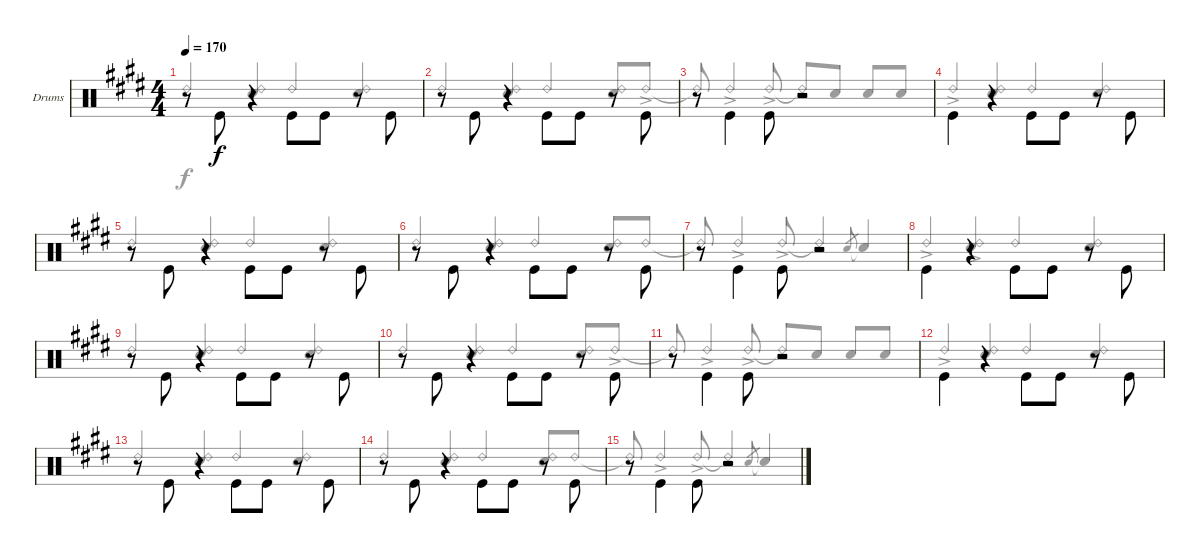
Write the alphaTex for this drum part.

\bracketExtendMode groupsimilarinstruments
\firstSystemTrackNameOrientation horizontal
\otherSystemsTrackNameOrientation horizontal
\track ("Drums" "Drums") {instrument percussion}
\staff {score}
\articulation defaults
\voice
\ts (4 4)
\tempo 170
\clef neutral
\scale
1.06557
\ks e
r.8{dy f} "Kick (hit)".8{beam invert} r.4 "Kick (hit)".8{beam invert} "Kick (hit)".8 r.8 "Kick (hit)".8{beam invert} |
\scale
0.934426 r.8 "Kick (hit)".8{beam invert} r.4 "Kick (hit)".8{beam invert} "Kick (hit)".8 r.8 "Kick (hit)".8{beam invert} |
\scale
1.09584 r.8 "Kick (hit)".4{beam invert} "Kick (hit)".8{beam invert} r.2 |
\scale
0.904161 "Kick (hit)".4{beam invert} r.4{beam invert} "Kick (hit)".8{beam invert} "Kick (hit)".8 r.8 "Kick (hit)".8{beam invert} |
\scale
1.06557 r.8 "Kick (hit)".8{beam invert} r.4 "Kick (hit)".8{beam invert} "Kick (hit)".8 r.8 "Kick (hit)".8{beam invert} |
\scale
0.934426 r.8 "Kick (hit)".8{beam invert} r.4 "Kick (hit)".8{beam invert} "Kick (hit)".8 r.8 "Kick (hit)".8{beam invert} |
\scale
1.06557 r.8 "Kick (hit)".4{beam invert} "Kick (hit)".8{beam invert} r.2 |
\scale
0.934426 "Kick (hit)".4{beam invert} r.4{beam invert} "Kick (hit)".8{beam invert} "Kick (hit)".8 r.8 "Kick (hit)".8{beam invert} |
\scale
1.06557 r.8 "Kick (hit)".8{beam invert} r.4 "Kick (hit)".8{beam invert} "Kick (hit)".8 r.8 "Kick (hit)".8{beam invert} |
\scale
0.934426 r.8 "Kick (hit)".8{beam invert} r.4 "Kick (hit)".8{beam invert} "Kick (hit)".8 r.8 "Kick (hit)".8{beam invert} |
\scale
1.06557 r.8 "Kick (hit)".4{beam invert} "Kick (hit)".8{beam invert} r.2 |
\scale
0.934426 "Kick (hit)".4{beam invert} r.4{beam invert} "Kick (hit)".8{beam invert} "Kick (hit)".8 r.8 "Kick (hit)".8{beam invert} |
\scale
1.06557 r.8 "Kick (hit)".8{beam invert} r.4 "Kick (hit)".8{beam invert} "Kick (hit)".8 r.8 "Kick (hit)".8{beam invert} |
\scale
0.934426 r.8 "Kick (hit)".8{beam invert} r.4 "Kick (hit)".8{beam invert} "Kick (hit)".8 r.8 "Kick (hit)".8{beam invert} |
\scale
1.06557 r.8 "Kick (hit)".4{beam invert} "Kick (hit)".8{beam invert} r.2
\voice
\clef neutral
\ottava regular
\simile none
\scale
1.06557
\ks e "Ride (bell) 2".4{dy f beam invert}
("Ride (bell) 2" "Snare (hit) 2").4{beam invert} "Ride (bell) 2".4{beam invert} ("Ride (bell) 2" "Snare (hit) 2").4{beam invert} |
\scale
0.934426 "Ride (bell) 2".4{beam invert} ("Ride (bell) 2" "Snare (hit) 2").4{beam invert} "Ride (bell) 2".4{beam invert} ("Ride (bell) 2" "Snare (hit) 2").8{beam invert} "Ride (bell) 2"{ac}.8 |
\scale
1.09584 "Ride (bell) 2"{t}.8{beam invert} "Ride (bell) 2"{ac}.4{beam invert} "Ride (bell) 2"{ac}.8{beam invert} "Ride (bell) 2"{t}.8{beam invert} "Snare (hit) 2".8 "Snare (hit) 2".8{beam invert} "Snare (hit) 2".8 |
\scale
0.904161 "Ride (bell) 2"{ac}.4{beam invert} ("Ride (bell) 2" "Snare (hit) 2").4{beam invert} "Ride (bell) 2".4{beam invert} ("Ride (bell) 2" "Snare (hit) 2").4{beam invert} |
\scale
1.06557 "Ride (bell) 2".4{beam invert} ("Ride (bell) 2" "Snare (hit) 2").4{beam invert} "Ride (bell) 2".4{beam invert} ("Ride (bell) 2" "Snare (hit) 2").4{beam invert} |
\scale
0.934426 "Ride (bell) 2".4{beam invert} ("Ride (bell) 2" "Snare (hit) 2").4{beam invert} "Ride (bell) 2".4{beam invert} ("Ride (bell) 2" "Snare (hit) 2").8{beam invert} "Ride (bell) 2".8 |
\scale
1.06557 "Ride (bell) 2"{t}.8{beam invert} "Ride (bell) 2"{ac}.4{beam invert} "Ride (bell) 2"{ac}.8{beam invert} "Ride (bell) 2"{t}.4{beam invert} "Snare (hit) 2".8{gr beam invert} "Snare (hit) 2"{t}.4{beam invert} |
\scale
0.934426 "Ride (bell) 2"{ac}.4{beam invert} ("Ride (bell) 2"{ac} "Snare (hit) 2"{ac}).4{beam invert} "Ride (bell) 2".4{beam invert} ("Ride (bell) 2" "Snare (hit) 2").4{beam invert} |
\scale
1.06557 "Ride (bell) 2".4{beam invert} ("Ride (bell) 2" "Snare (hit) 2").4{beam invert} "Ride (bell) 2".4{beam invert} ("Ride (bell) 2" "Snare (hit) 2").4{beam invert} |
\scale
0.934426 "Ride (bell) 2".4{beam invert} ("Ride (bell) 2" "Snare (hit) 2").4{beam invert} "Ride (bell) 2".4{beam invert} ("Ride (bell) 2" "Snare (hit) 2").8{beam invert} "Ride (bell) 2"{ac}.8 |
\scale
1.06557 "Ride (bell) 2"{t}.8{beam invert} "Ride (bell) 2"{ac}.4{beam invert} "Ride (bell) 2"{ac}.8{beam invert} "Ride (bell) 2"{t}.8{beam invert} "Snare (hit) 2".8 "Snare (hit) 2".8{beam invert} "Snare (hit) 2".8 |
\scale
0.934426 "Ride (bell) 2"{ac}.4{beam invert} ("Ride (bell) 2" "Snare (hit) 2").4{beam invert} "Ride (bell) 2".4{beam invert} ("Ride (bell) 2" "Snare (hit) 2").4{beam invert} |
\scale
1.06557 "Ride (bell) 2".4{beam invert} ("Ride (bell) 2" "Snare (hit) 2").4{beam invert} "Ride (bell) 2".4{beam invert} ("Ride (bell) 2" "Snare (hit) 2").4{beam invert} |
\scale
0.934426 "Ride (bell) 2".4{beam invert} ("Ride (bell) 2" "Snare (hit) 2").4{beam invert} "Ride (bell) 2".4{beam invert} ("Ride (bell) 2" "Snare (hit) 2").8{beam invert} "Ride (bell) 2".8 |
\scale
1.06557 "Ride (bell) 2"{t}.8{beam invert} "Ride (bell) 2"{ac}.4{beam invert} "Ride (bell) 2"{ac}.8{beam invert} "Ride (bell) 2"{t}.4{beam invert} "Snare (hit) 2".8{gr beam invert} "Snare (hit) 2"{t}.4{beam invert}
